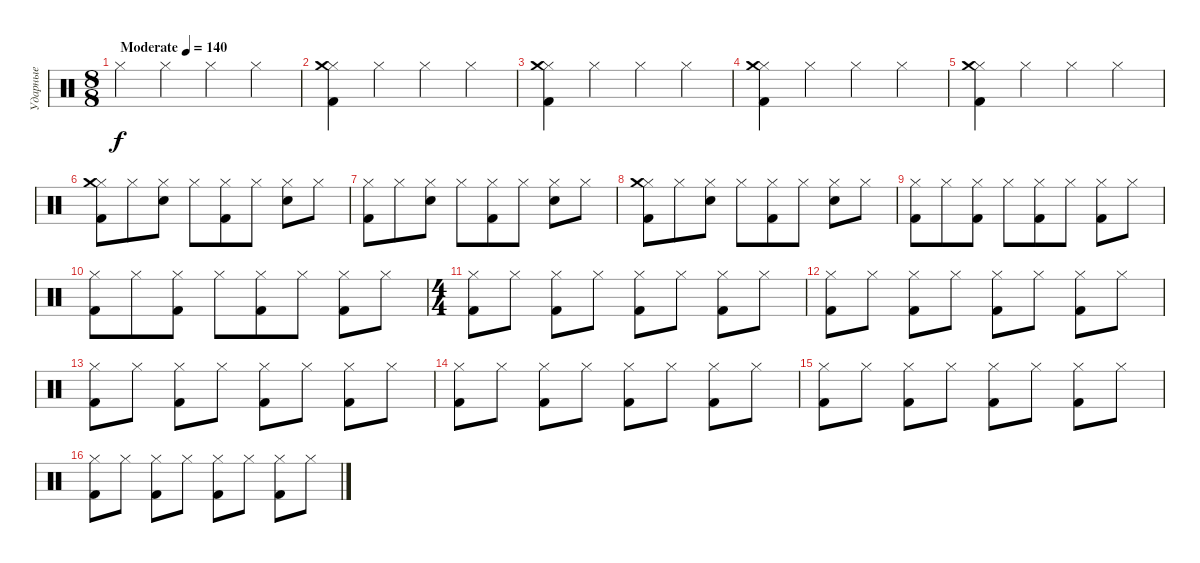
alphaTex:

\track ("Ударные" "Ударные") {instrument percussion}
\staff {score}
\articulation defaults
\ts (8 8)
\tempo (140 "Moderate")
\clef neutral
\ks c "Hi-Hat (closed)".4{dy f} "Hi-Hat (closed)".4 "Hi-Hat (closed)".4 "Hi-Hat (closed)".4
|
("Hi-Hat (closed)" "Kick (hit) 2" "Crash medium (hit)").4 "Hi-Hat (closed)".4 "Hi-Hat (closed)".4 "Hi-Hat (closed)".4 |
("Hi-Hat (closed)" "Kick (hit) 2" "Crash medium (hit)").4 "Hi-Hat (closed)".4 "Hi-Hat (closed)".4 "Hi-Hat (closed)".4 |
("Hi-Hat (closed)" "Kick (hit) 2" "Crash medium (hit)").4 "Hi-Hat (closed)".4 "Hi-Hat (closed)".4 "Hi-Hat (closed)".4 |
("Hi-Hat (closed)" "Kick (hit) 2" "Crash medium (hit)").4 "Hi-Hat (closed)".4 "Hi-Hat (closed)".4 "Hi-Hat (closed)".4 |
("Hi-Hat (closed)" "Kick (hit) 2" "Crash medium (hit)").8 "Hi-Hat (closed)".8 ("Hi-Hat (closed)" "Snare (hit) 2").8 "Hi-Hat (closed)".8 ("Hi-Hat (closed)" "Kick (hit) 2").8 "Hi-Hat (closed)".8 ("Hi-Hat (closed)" "Snare (hit) 2").8 "Hi-Hat (closed)".8 |
("Hi-Hat (closed)" "Kick (hit) 2").8 "Hi-Hat (closed)".8 ("Hi-Hat (closed)" "Snare (hit) 2").8 "Hi-Hat (closed)".8 ("Hi-Hat (closed)" "Kick (hit) 2").8 "Hi-Hat (closed)".8 ("Hi-Hat (closed)" "Snare (hit) 2").8 "Hi-Hat (closed)".8 |
("Hi-Hat (closed)" "Kick (hit) 2" "Crash medium (hit)").8 "Hi-Hat (closed)".8 ("Hi-Hat (closed)" "Snare (hit) 2").8 "Hi-Hat (closed)".8 ("Hi-Hat (closed)" "Kick (hit) 2").8 "Hi-Hat (closed)".8 ("Hi-Hat (closed)" "Snare (hit) 2").8 "Hi-Hat (closed)".8 |
("Hi-Hat (closed)" "Kick (hit) 2").8 "Hi-Hat (closed)".8 ("Hi-Hat (closed)" "Kick (hit) 2").8 "Hi-Hat (closed)".8 ("Hi-Hat (closed)" "Kick (hit) 2").8 "Hi-Hat (closed)".8 ("Hi-Hat (closed)" "Kick (hit) 2").8 "Hi-Hat (closed)".8 |
("Hi-Hat (closed)" "Kick (hit) 2").8 "Hi-Hat (closed)".8 ("Hi-Hat (closed)" "Kick (hit) 2").8 "Hi-Hat (closed)".8 ("Hi-Hat (closed)" "Kick (hit) 2").8 "Hi-Hat (closed)".8 ("Hi-Hat (closed)" "Kick (hit) 2").8 "Hi-Hat (closed)".8 |
\ts (4 4)
("Hi-Hat (closed)" "Kick (hit) 2").8 "Hi-Hat (closed)".8 ("Hi-Hat (closed)" "Kick (hit) 2").8 "Hi-Hat (closed)".8 ("Hi-Hat (closed)" "Kick (hit) 2").8 "Hi-Hat (closed)".8 ("Hi-Hat (closed)" "Kick (hit) 2").8 "Hi-Hat (closed)".8 |
("Hi-Hat (closed)" "Kick (hit) 2").8 "Hi-Hat (closed)".8 ("Hi-Hat (closed)" "Kick (hit) 2").8 "Hi-Hat (closed)".8 ("Hi-Hat (closed)" "Kick (hit) 2").8 "Hi-Hat (closed)".8 ("Hi-Hat (closed)" "Kick (hit) 2").8 "Hi-Hat (closed)".8 |
("Hi-Hat (closed)" "Kick (hit) 2").8 "Hi-Hat (closed)".8 ("Hi-Hat (closed)" "Kick (hit) 2").8 "Hi-Hat (closed)".8 ("Hi-Hat (closed)" "Kick (hit) 2").8 "Hi-Hat (closed)".8 ("Hi-Hat (closed)" "Kick (hit) 2").8 "Hi-Hat (closed)".8 |
("Hi-Hat (closed)" "Kick (hit) 2").8 "Hi-Hat (closed)".8 ("Hi-Hat (closed)" "Kick (hit) 2").8 "Hi-Hat (closed)".8 ("Hi-Hat (closed)" "Kick (hit) 2").8 "Hi-Hat (closed)".8 ("Hi-Hat (closed)" "Kick (hit) 2").8 "Hi-Hat (closed)".8 |
("Hi-Hat (closed)" "Kick (hit) 2").8 "Hi-Hat (closed)".8 ("Hi-Hat (closed)" "Kick (hit) 2").8 "Hi-Hat (closed)".8 ("Hi-Hat (closed)" "Kick (hit) 2").8 "Hi-Hat (closed)".8 ("Hi-Hat (closed)" "Kick (hit) 2").8 "Hi-Hat (closed)".8 |
("Hi-Hat (closed)" "Kick (hit) 2").8 "Hi-Hat (closed)".8 ("Hi-Hat (closed)" "Kick (hit) 2").8 "Hi-Hat (closed)".8 ("Hi-Hat (closed)" "Kick (hit) 2").8 "Hi-Hat (closed)".8 ("Hi-Hat (closed)" "Kick (hit) 2").8 "Hi-Hat (closed)".8
